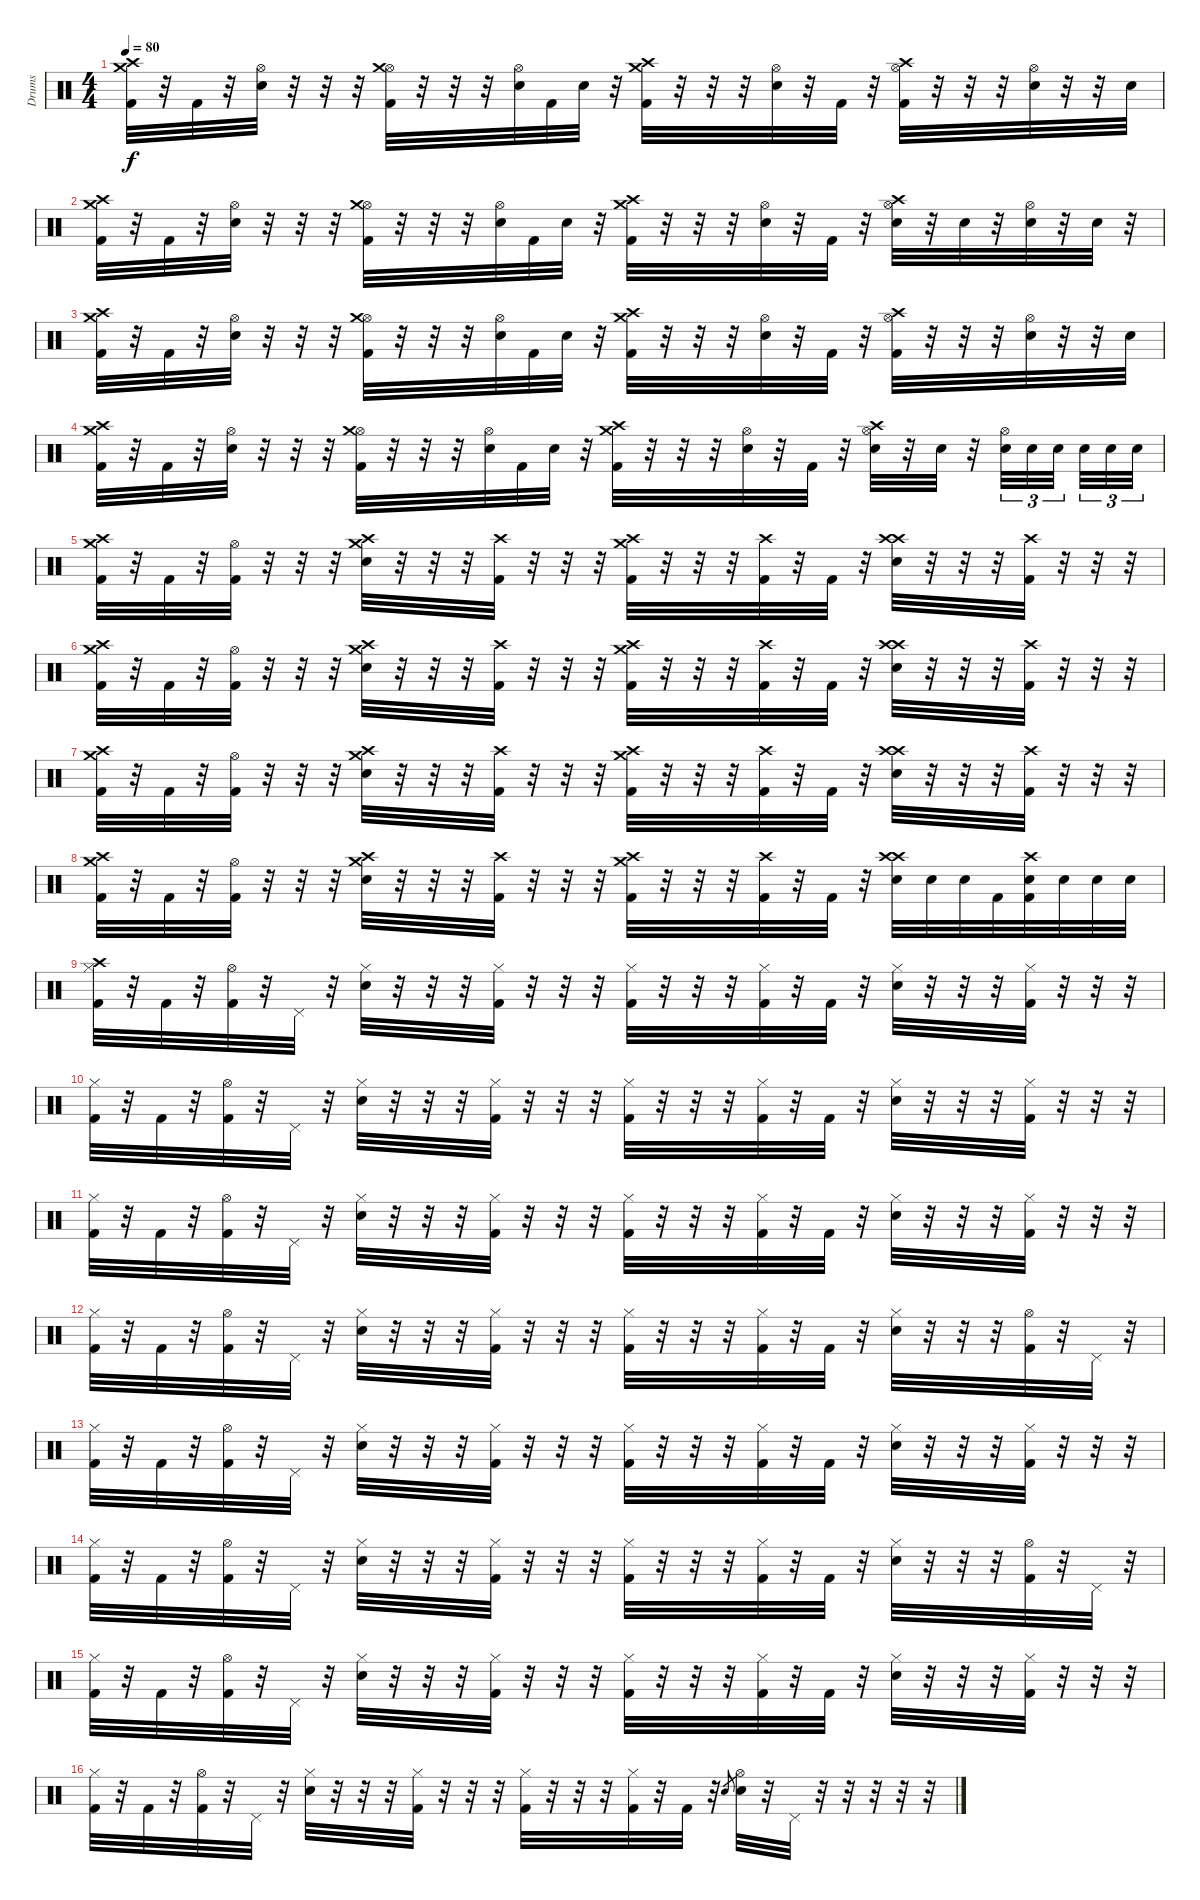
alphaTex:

\track ("Drums" "Drums") {instrument percussion}
\staff {score}
\articulation defaults
\ts (4 4)
\tempo 80
\clef neutral
\ks c
("Crash high (hit)" "Crash medium (hit)" "Kick (hit) 2").32{dy f volume 15} r.32 "Kick (hit) 2".32 r.32 ("Hi-Hat (open)" "Electric Snare (hit)").32 r.32 r.32 r.32 ("Hi-Hat (open)" "Crash medium (hit)" "Kick (hit) 2").32 r.32 r.32 r.32 ("Hi-Hat (open)" "Electric Snare (hit)").32 "Kick (hit) 2".32 "Electric Snare (hit)".32 r.32 ("Crash high (hit)" "Crash medium (hit)" "Kick (hit) 2").32 r.32 r.32 r.32 ("Hi-Hat (open)" "Electric Snare (hit)").32 r.32 "Kick (hit) 2".32 r.32 ("Crash high (hit)" "Hi-Hat (open)" "Kick (hit) 2").32 r.32 r.32 r.32 ("Hi-Hat (open)" "Electric Snare (hit)").32 r.32 r.32 "Electric Snare (hit)".32 |
("Crash high (hit)" "Crash medium (hit)" "Kick (hit) 2").32{volume 15} r.32 "Kick (hit) 2".32 r.32 ("Hi-Hat (open)" "Electric Snare (hit)").32 r.32 r.32 r.32 ("Hi-Hat (open)" "Crash medium (hit)" "Kick (hit) 2").32 r.32 r.32 r.32 ("Hi-Hat (open)" "Electric Snare (hit)").32 "Kick (hit) 2".32 "Electric Snare (hit)".32 r.32 ("Crash high (hit)" "Crash medium (hit)" "Kick (hit) 2").32 r.32 r.32 r.32 ("Hi-Hat (open)" "Electric Snare (hit)").32 r.32 "Kick (hit) 2".32 r.32 ("Crash high (hit)" "Hi-Hat (open)" "Electric Snare (hit)").32 r.32 "Electric Snare (hit)".32 r.32 ("Hi-Hat (open)" "Electric Snare (hit)").32 r.32 "Electric Snare (hit)".32 r.32 |
("Crash high (hit)" "Crash medium (hit)" "Kick (hit) 2").32{volume 15} r.32 "Kick (hit) 2".32 r.32 ("Hi-Hat (open)" "Electric Snare (hit)").32 r.32 r.32 r.32 ("Hi-Hat (open)" "Crash medium (hit)" "Kick (hit) 2").32 r.32 r.32 r.32 ("Hi-Hat (open)" "Electric Snare (hit)").32 "Kick (hit) 2".32 "Electric Snare (hit)".32 r.32 ("Crash high (hit)" "Crash medium (hit)" "Kick (hit) 2").32 r.32 r.32 r.32 ("Hi-Hat (open)" "Electric Snare (hit)").32 r.32 "Kick (hit) 2".32 r.32 ("Crash high (hit)" "Hi-Hat (open)" "Kick (hit) 2").32 r.32 r.32 r.32 ("Hi-Hat (open)" "Electric Snare (hit)").32 r.32 r.32 "Electric Snare (hit)".32 |
("Crash high (hit)" "Crash medium (hit)" "Kick (hit) 2").32{volume 15} r.32 "Kick (hit) 2".32 r.32 ("Hi-Hat (open)" "Electric Snare (hit)").32 r.32 r.32 r.32 ("Hi-Hat (open)" "Crash medium (hit)" "Kick (hit) 2").32 r.32 r.32 r.32 ("Hi-Hat (open)" "Electric Snare (hit)").32 "Kick (hit) 2".32 "Electric Snare (hit)".32 r.32 ("Crash high (hit)" "Crash medium (hit)" "Kick (hit) 2").32 r.32 r.32 r.32 ("Hi-Hat (open)" "Electric Snare (hit)").32 r.32 "Kick (hit) 2".32 r.32 ("Crash high (hit)" "Hi-Hat (open)" "Electric Snare (hit)").32 r.32 "Electric Snare (hit)".32 r.32 ("Hi-Hat (open)" "Electric Snare (hit)").32{tu (3 2)} "Electric Snare (hit)".32{tu (3 2)} "Electric Snare (hit)".32{tu (3 2)} "Electric Snare (hit)".32{tu (3 2)} "Electric Snare (hit)".32{tu (3 2)} "Electric Snare (hit)".32{tu (3 2)} |
("Crash high (hit)" "Crash medium (hit)" "Kick (hit) 2").32{volume 15} r.32 "Kick (hit) 2".32 r.32 ("Hi-Hat (open)" "Kick (hit) 2").32 r.32 r.32 r.32 ("Crash high (hit)" "Crash medium (hit)" "Electric Snare (hit)").32 r.32 r.32 r.32 ("Crash high (hit)" "Kick (hit) 2").32 r.32 r.32 r.32 ("Crash high (hit)" "Crash medium (hit)" "Kick (hit) 2").32 r.32 r.32 r.32 ("Crash high (hit)" "Kick (hit) 2").32 r.32 "Kick (hit) 2".32 r.32 ("Crash high (hit)" "Crash high (hit)" "Electric Snare (hit)").32 r.32 r.32 r.32 ("Crash high (hit)" "Kick (hit) 2").32 r.32 r.32 r.32 |
("Crash high (hit)" "Crash medium (hit)" "Kick (hit) 2").32{volume 15} r.32 "Kick (hit) 2".32 r.32 ("Hi-Hat (open)" "Kick (hit) 2").32 r.32 r.32 r.32 ("Crash high (hit)" "Crash medium (hit)" "Electric Snare (hit)").32 r.32 r.32 r.32 ("Crash high (hit)" "Kick (hit) 2").32 r.32 r.32 r.32 ("Crash high (hit)" "Crash medium (hit)" "Kick (hit) 2").32 r.32 r.32 r.32 ("Crash high (hit)" "Kick (hit) 2").32 r.32 "Kick (hit) 2".32 r.32 ("Crash high (hit)" "Crash high (hit)" "Electric Snare (hit)").32 r.32 r.32 r.32 ("Crash high (hit)" "Kick (hit) 2").32 r.32 r.32 r.32 |
("Crash high (hit)" "Crash medium (hit)" "Kick (hit) 2").32{volume 15} r.32 "Kick (hit) 2".32 r.32 ("Hi-Hat (open)" "Kick (hit) 2").32 r.32 r.32 r.32 ("Crash high (hit)" "Crash medium (hit)" "Electric Snare (hit)").32 r.32 r.32 r.32 ("Crash high (hit)" "Kick (hit) 2").32 r.32 r.32 r.32 ("Crash high (hit)" "Crash medium (hit)" "Kick (hit) 2").32 r.32 r.32 r.32 ("Crash high (hit)" "Kick (hit) 2").32 r.32 "Kick (hit) 2".32 r.32 ("Crash high (hit)" "Crash high (hit)" "Electric Snare (hit)").32 r.32 r.32 r.32 ("Crash high (hit)" "Kick (hit) 2").32 r.32 r.32 r.32 |
("Crash high (hit)" "Crash medium (hit)" "Kick (hit) 2").32{volume 15} r.32 "Kick (hit) 2".32 r.32 ("Hi-Hat (open)" "Kick (hit) 2").32 r.32 r.32 r.32 ("Crash high (hit)" "Crash medium (hit)" "Electric Snare (hit)").32 r.32 r.32 r.32 ("Crash high (hit)" "Kick (hit) 2").32 r.32 r.32 r.32 ("Crash high (hit)" "Crash medium (hit)" "Kick (hit) 2").32 r.32 r.32 r.32 ("Crash high (hit)" "Kick (hit) 2").32 r.32 "Kick (hit) 2".32 r.32 ("Crash high (hit)" "Crash high (hit)" "Electric Snare (hit)").32 "Electric Snare (hit)".32 "Electric Snare (hit)".32 "Kick (hit) 2".32 ("Crash high (hit)" "Kick (hit) 2" "Electric Snare (hit)").32 "Electric Snare (hit)".32 "Electric Snare (hit)".32 "Electric Snare (hit)".32 |
("Crash high (hit)" "Hi-Hat (closed)" "Kick (hit) 2").32{volume 15} r.32 "Kick (hit) 2".32 r.32 ("Hi-Hat (open)" "Kick (hit) 2").32 r.32 "Pedal Hi-Hat (hit)".32 r.32 ("Hi-Hat (closed)" "Electric Snare (hit)").32 r.32 r.32 r.32 ("Hi-Hat (closed)" "Kick (hit) 2").32 r.32 r.32 r.32 ("Hi-Hat (closed)" "Kick (hit) 2").32 r.32 r.32 r.32 ("Hi-Hat (closed)" "Kick (hit) 2").32 r.32 "Kick (hit) 2".32 r.32 ("Hi-Hat (closed)" "Electric Snare (hit)").32 r.32 r.32 r.32 ("Hi-Hat (closed)" "Kick (hit) 2").32 r.32 r.32 r.32 |
("Hi-Hat (closed)" "Kick (hit) 2").32{volume 15} r.32 "Kick (hit) 2".32 r.32 ("Hi-Hat (open)" "Kick (hit) 2").32 r.32 "Pedal Hi-Hat (hit)".32 r.32 ("Hi-Hat (closed)" "Electric Snare (hit)").32 r.32 r.32 r.32 ("Hi-Hat (closed)" "Kick (hit) 2").32 r.32 r.32 r.32 ("Hi-Hat (closed)" "Kick (hit) 2").32 r.32 r.32 r.32 ("Hi-Hat (closed)" "Kick (hit) 2").32 r.32 "Kick (hit) 2".32 r.32 ("Hi-Hat (closed)" "Electric Snare (hit)").32 r.32 r.32 r.32 ("Hi-Hat (closed)" "Kick (hit) 2").32 r.32 r.32 r.32 |
("Hi-Hat (closed)" "Kick (hit) 2").32{volume 15} r.32 "Kick (hit) 2".32 r.32 ("Hi-Hat (open)" "Kick (hit) 2").32 r.32 "Pedal Hi-Hat (hit)".32 r.32 ("Hi-Hat (closed)" "Electric Snare (hit)").32 r.32 r.32 r.32 ("Hi-Hat (closed)" "Kick (hit) 2").32 r.32 r.32 r.32 ("Hi-Hat (closed)" "Kick (hit) 2").32 r.32 r.32 r.32 ("Hi-Hat (closed)" "Kick (hit) 2").32 r.32 "Kick (hit) 2".32 r.32 ("Hi-Hat (closed)" "Electric Snare (hit)").32 r.32 r.32 r.32 ("Hi-Hat (closed)" "Kick (hit) 2").32 r.32 r.32 r.32 |
("Hi-Hat (closed)" "Kick (hit) 2").32{volume 15} r.32 "Kick (hit) 2".32 r.32 ("Hi-Hat (open)" "Kick (hit) 2").32 r.32 "Pedal Hi-Hat (hit)".32 r.32 ("Hi-Hat (closed)" "Electric Snare (hit)").32 r.32 r.32 r.32 ("Hi-Hat (closed)" "Kick (hit) 2").32 r.32 r.32 r.32 ("Hi-Hat (closed)" "Kick (hit) 2").32 r.32 r.32 r.32 ("Hi-Hat (closed)" "Kick (hit) 2").32 r.32 "Kick (hit) 2".32 r.32 ("Hi-Hat (closed)" "Electric Snare (hit)").32 r.32 r.32 r.32 ("Hi-Hat (open)" "Kick (hit) 2").32 r.32 "Pedal Hi-Hat (hit)".32 r.32 |
("Hi-Hat (closed)" "Kick (hit) 2").32{volume 15} r.32 "Kick (hit) 2".32 r.32 ("Hi-Hat (open)" "Kick (hit) 2").32 r.32 "Pedal Hi-Hat (hit)".32 r.32 ("Hi-Hat (closed)" "Electric Snare (hit)").32 r.32 r.32 r.32 ("Hi-Hat (closed)" "Kick (hit) 2").32 r.32 r.32 r.32 ("Hi-Hat (closed)" "Kick (hit) 2").32 r.32 r.32 r.32 ("Hi-Hat (closed)" "Kick (hit) 2").32 r.32 "Kick (hit) 2".32 r.32 ("Hi-Hat (closed)" "Electric Snare (hit)").32 r.32 r.32 r.32 ("Hi-Hat (closed)" "Kick (hit) 2").32 r.32 r.32 r.32 |
("Hi-Hat (closed)" "Kick (hit) 2").32{volume 15} r.32 "Kick (hit) 2".32 r.32 ("Hi-Hat (open)" "Kick (hit) 2").32 r.32 "Pedal Hi-Hat (hit)".32 r.32 ("Hi-Hat (closed)" "Electric Snare (hit)").32 r.32 r.32 r.32 ("Hi-Hat (closed)" "Kick (hit) 2").32 r.32 r.32 r.32 ("Hi-Hat (closed)" "Kick (hit) 2").32 r.32 r.32 r.32 ("Hi-Hat (closed)" "Kick (hit) 2").32 r.32 "Kick (hit) 2".32 r.32 ("Hi-Hat (closed)" "Electric Snare (hit)").32 r.32 r.32 r.32 ("Hi-Hat (open)" "Kick (hit) 2").32 r.32 "Pedal Hi-Hat (hit)".32 r.32 |
("Hi-Hat (closed)" "Kick (hit) 2").32{volume 15} r.32 "Kick (hit) 2".32 r.32 ("Hi-Hat (open)" "Kick (hit) 2").32 r.32 "Pedal Hi-Hat (hit)".32 r.32 ("Hi-Hat (closed)" "Electric Snare (hit)").32 r.32 r.32 r.32 ("Hi-Hat (closed)" "Kick (hit) 2").32 r.32 r.32 r.32 ("Hi-Hat (closed)" "Kick (hit) 2").32 r.32 r.32 r.32 ("Hi-Hat (closed)" "Kick (hit) 2").32 r.32 "Kick (hit) 2".32 r.32 ("Hi-Hat (closed)" "Electric Snare (hit)").32 r.32 r.32 r.32 ("Hi-Hat (closed)" "Kick (hit) 2").32 r.32 r.32 r.32 |
("Hi-Hat (closed)" "Kick (hit) 2").32{volume 15} r.32 "Kick (hit) 2".32 r.32 ("Hi-Hat (open)" "Kick (hit) 2").32 r.32 "Pedal Hi-Hat (hit)".32 r.32 ("Hi-Hat (closed)" "Electric Snare (hit)").32 r.32 r.32 r.32 ("Hi-Hat (closed)" "Kick (hit) 2").32 r.32 r.32 r.32 ("Hi-Hat (closed)" "Kick (hit) 2").32 r.32 r.32 r.32 ("Hi-Hat (closed)" "Kick (hit) 2").32 r.32 "Kick (hit) 2".32 r.32 "Electric Snare (hit)".8{gr} ("Hi-Hat (open)" "Electric Snare (hit)").32 r.32 "Pedal Hi-Hat (hit)".32 r.32 r.32 r.32 r.32 r.32
